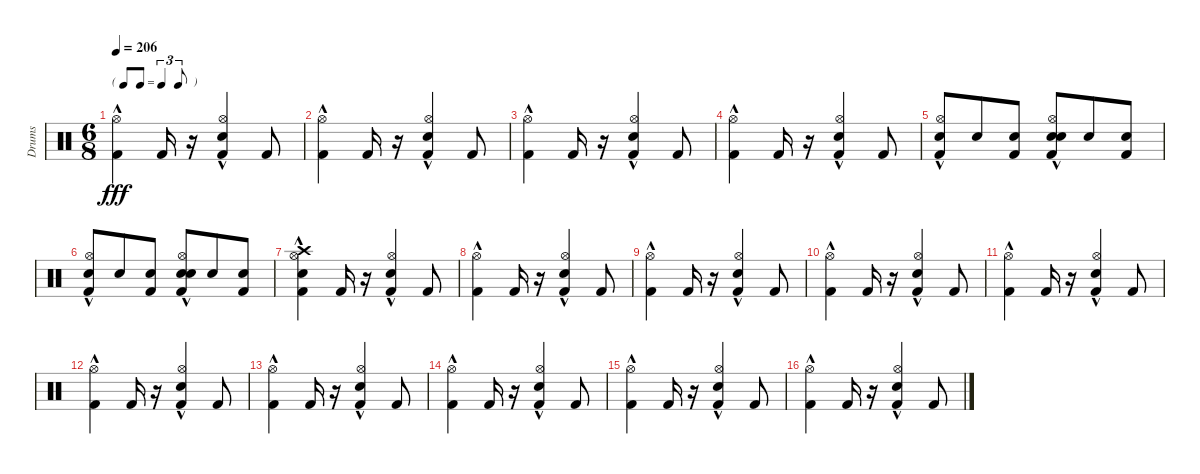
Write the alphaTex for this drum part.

\track ("Drums" "Drums") {instrument percussion}
\staff {score}
\articulation defaults
\ts (6 8)
\tf triplet8th
\tempo 206
\clef neutral
\ks c
("Kick (hit) 2"{hac} "Hi-Hat (open)").4{dy fff} "Kick (hit) 2".16 r.16 ("Kick (hit) 2" "Hi-Hat (open)" "Snare (hit) 2"{hac}).4 "Kick (hit) 2".8 |
("Hi-Hat (open)" "Kick (hit) 2"{hac}).4 "Kick (hit) 2".16 r.16 ("Hi-Hat (open)" "Snare (hit) 2"{hac} "Kick (hit) 2").4 "Kick (hit) 2".8 |
("Hi-Hat (open)" "Kick (hit) 2"{hac}).4 "Kick (hit) 2".16 r.16 ("Hi-Hat (open)" "Snare (hit) 2"{hac} "Kick (hit) 2").4 "Kick (hit) 2".8 |
("Hi-Hat (open)" "Kick (hit) 2"{hac}).4 "Kick (hit) 2".16 r.16 ("Hi-Hat (open)" "Snare (hit) 2"{hac} "Kick (hit) 2").4 "Kick (hit) 2".8 |
("Kick (hit) 2"{hac} "Hi-Hat (open)" "Electric Snare (hit)").8 "Electric Snare (hit)".8 ("Kick (hit) 2" "Electric Snare (hit)").8 ("Kick (hit) 2" "Hi-Hat (open)" "Snare (hit) 2"{hac} "Electric Snare (hit)").8 "Electric Snare (hit)".8 ("Kick (hit) 2" "Electric Snare (hit)").8 |
("Hi-Hat (open)" "Kick (hit) 2"{hac} "Electric Snare (hit)").8 "Electric Snare (hit)".8 ("Kick (hit) 2" "Electric Snare (hit)").8 ("Hi-Hat (open)" "Snare (hit) 2"{hac} "Kick (hit) 2" "Electric Snare (hit)").8 "Electric Snare (hit)".8 ("Kick (hit) 2" "Electric Snare (hit)").8 |
("Hi-Hat (open)" "Kick (hit) 2"{hac} "Electric Snare (hit)" "Crash high (hit)").4 "Kick (hit) 2".16 r.16 ("Hi-Hat (open)" "Snare (hit) 2"{hac} "Kick (hit) 2").4 "Kick (hit) 2".8 |
("Hi-Hat (open)" "Kick (hit) 2"{hac}).4 "Kick (hit) 2".16 r.16 ("Hi-Hat (open)" "Snare (hit) 2"{hac} "Kick (hit) 2").4 "Kick (hit) 2".8 |
("Kick (hit) 2"{hac} "Hi-Hat (open)").4 "Kick (hit) 2".16 r.16 ("Kick (hit) 2" "Hi-Hat (open)" "Snare (hit) 2"{hac}).4 "Kick (hit) 2".8 |
("Hi-Hat (open)" "Kick (hit) 2"{hac}).4 "Kick (hit) 2".16 r.16 ("Hi-Hat (open)" "Snare (hit) 2"{hac} "Kick (hit) 2").4 "Kick (hit) 2".8 |
("Hi-Hat (open)" "Kick (hit) 2"{hac}).4 "Kick (hit) 2".16 r.16 ("Hi-Hat (open)" "Snare (hit) 2"{hac} "Kick (hit) 2").4 "Kick (hit) 2".8 |
("Hi-Hat (open)" "Kick (hit) 2"{hac}).4 "Kick (hit) 2".16 r.16 ("Hi-Hat (open)" "Snare (hit) 2"{hac} "Kick (hit) 2").4 "Kick (hit) 2".8 |
("Kick (hit) 2"{hac} "Hi-Hat (open)").4 "Kick (hit) 2".16 r.16 ("Kick (hit) 2" "Hi-Hat (open)" "Snare (hit) 2"{hac}).4 "Kick (hit) 2".8 |
("Hi-Hat (open)" "Kick (hit) 2"{hac}).4 "Kick (hit) 2".16 r.16 ("Hi-Hat (open)" "Snare (hit) 2"{hac} "Kick (hit) 2").4 "Kick (hit) 2".8 |
("Hi-Hat (open)" "Kick (hit) 2"{hac}).4 "Kick (hit) 2".16 r.16 ("Hi-Hat (open)" "Snare (hit) 2"{hac} "Kick (hit) 2").4 "Kick (hit) 2".8 |
("Hi-Hat (open)" "Kick (hit) 2"{hac}).4 "Kick (hit) 2".16 r.16 ("Hi-Hat (open)" "Snare (hit) 2"{hac} "Kick (hit) 2").4 "Kick (hit) 2".8
